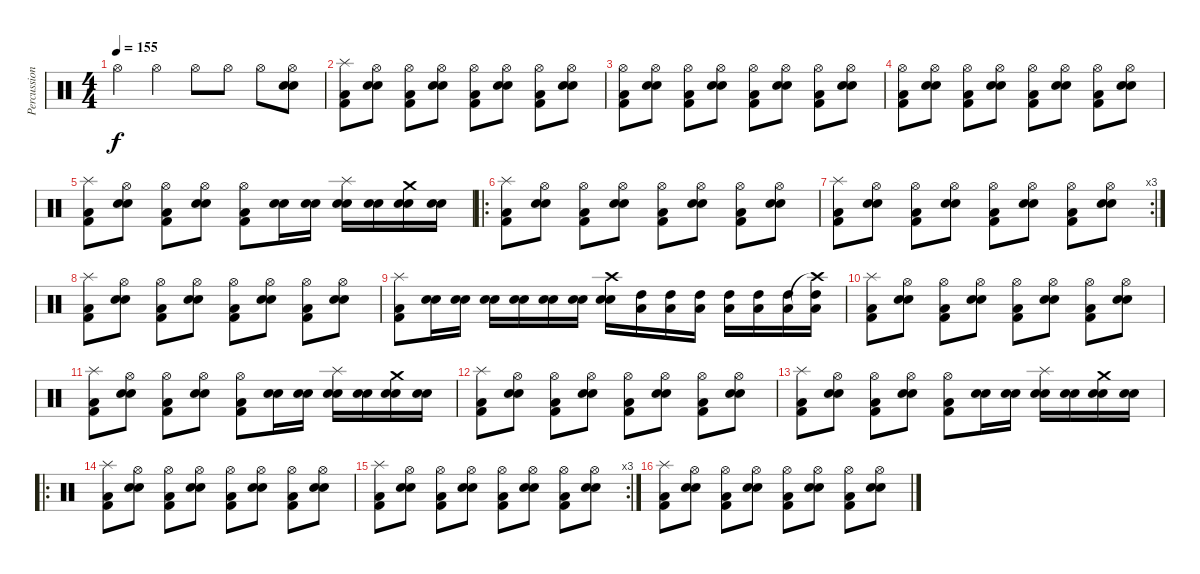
\track ("Percussions" "Percussion") {instrument percussion}
\staff {score}
\articulation defaults
\ts (4 4)
\tempo 155
\clef neutral
\ks c "Hi-Hat (open)".4{dy f} "Hi-Hat (open)".4 "Hi-Hat (open)".8 "Hi-Hat (open)".8 "Hi-Hat (open)".8
("Hi-Hat (open)" "Snare (hit) 2" "Snare (hit) 2").8 |
("Splash (hit)" "Kick (hit) 2" "Low Floor Tom (hit)").8 ("Hi-Hat (open)" "Snare (hit) 2" "Snare (hit) 2").8 ("Hi-Hat (open)" "Kick (hit) 2" "Low Floor Tom (hit)").8 ("Hi-Hat (open)" "Snare (hit) 2" "Snare (hit) 2").8 ("Hi-Hat (open)" "Kick (hit) 2" "Low Floor Tom (hit)").8 ("Hi-Hat (open)" "Snare (hit) 2" "Snare (hit) 2").8 ("Hi-Hat (open)" "Kick (hit) 2" "Low Floor Tom (hit)").8 ("Hi-Hat (open)" "Snare (hit) 2" "Snare (hit) 2").8 |
("Hi-Hat (open)" "Kick (hit) 2" "Low Floor Tom (hit)").8 ("Hi-Hat (open)" "Snare (hit) 2" "Snare (hit) 2").8 ("Hi-Hat (open)" "Kick (hit) 2" "Low Floor Tom (hit)").8 ("Hi-Hat (open)" "Snare (hit) 2" "Snare (hit) 2").8 ("Hi-Hat (open)" "Kick (hit) 2" "Low Floor Tom (hit)").8 ("Hi-Hat (open)" "Snare (hit) 2" "Snare (hit) 2").8 ("Hi-Hat (open)" "Kick (hit) 2" "Low Floor Tom (hit)").8 ("Hi-Hat (open)" "Snare (hit) 2" "Snare (hit) 2").8 |
("Hi-Hat (open)" "Kick (hit) 2" "Low Floor Tom (hit)").8 ("Hi-Hat (open)" "Snare (hit) 2" "Snare (hit) 2").8 ("Hi-Hat (open)" "Kick (hit) 2" "Low Floor Tom (hit)").8 ("Hi-Hat (open)" "Snare (hit) 2" "Snare (hit) 2").8 ("Hi-Hat (open)" "Kick (hit) 2" "Low Floor Tom (hit)").8 ("Hi-Hat (open)" "Snare (hit) 2" "Snare (hit) 2").8 ("Hi-Hat (open)" "Kick (hit) 2" "Low Floor Tom (hit)").8 ("Hi-Hat (open)" "Snare (hit) 2" "Snare (hit) 2").8 |
("Splash (hit)" "Kick (hit) 2" "Low Floor Tom (hit)").8 ("Hi-Hat (open)" "Snare (hit) 2" "Snare (hit) 2").8 ("Hi-Hat (open)" "Kick (hit) 2" "Low Floor Tom (hit)").8 ("Hi-Hat (open)" "Snare (hit) 2" "Snare (hit) 2").8 ("Hi-Hat (open)" "Kick (hit) 2" "Low Floor Tom (hit)").8 ("Snare (hit) 2" "Snare (hit) 2").16 ("Snare (hit) 2" "Snare (hit) 2").16 ("Splash (hit)" "Snare (hit) 2" "Snare (hit) 2").16 ("Snare (hit) 2" "Snare (hit) 2").16 ("Crash medium (hit)" "Snare (hit) 2" "Snare (hit) 2").16 ("Snare (hit) 2" "Snare (hit) 2").16 |
\ro
("Splash (hit)" "Kick (hit) 2" "Low Floor Tom (hit)").8 ("Hi-Hat (open)" "Snare (hit) 2" "Snare (hit) 2").8 ("Hi-Hat (open)" "Kick (hit) 2" "Low Floor Tom (hit)").8 ("Hi-Hat (open)" "Snare (hit) 2" "Snare (hit) 2").8 ("Hi-Hat (open)" "Kick (hit) 2" "Low Floor Tom (hit)").8 ("Hi-Hat (open)" "Snare (hit) 2" "Snare (hit) 2").8 ("Hi-Hat (open)" "Kick (hit) 2" "Low Floor Tom (hit)").8 ("Hi-Hat (open)" "Snare (hit) 2" "Snare (hit) 2").8 |
\rc 3
("Splash (hit)" "Kick (hit) 2" "Low Floor Tom (hit)").8 ("Hi-Hat (open)" "Snare (hit) 2" "Snare (hit) 2").8 ("Hi-Hat (open)" "Kick (hit) 2" "Low Floor Tom (hit)").8 ("Hi-Hat (open)" "Snare (hit) 2" "Snare (hit) 2").8 ("Hi-Hat (open)" "Kick (hit) 2" "Low Floor Tom (hit)").8 ("Hi-Hat (open)" "Snare (hit) 2" "Snare (hit) 2").8 ("Hi-Hat (open)" "Kick (hit) 2" "Low Floor Tom (hit)").8 ("Hi-Hat (open)" "Snare (hit) 2" "Snare (hit) 2").8 |
("Splash (hit)" "Kick (hit) 2" "Low Floor Tom (hit)").8 ("Hi-Hat (open)" "Snare (hit) 2" "Snare (hit) 2").8 ("Hi-Hat (open)" "Kick (hit) 2" "Low Floor Tom (hit)").8 ("Hi-Hat (open)" "Snare (hit) 2" "Snare (hit) 2").8 ("Hi-Hat (open)" "Kick (hit) 2" "Low Floor Tom (hit)").8 ("Hi-Hat (open)" "Snare (hit) 2" "Snare (hit) 2").8 ("Hi-Hat (open)" "Kick (hit) 2" "Low Floor Tom (hit)").8 ("Hi-Hat (open)" "Snare (hit) 2" "Snare (hit) 2").8 |
("Splash (hit)" "Kick (hit) 2" "Low Floor Tom (hit)").8 ("Snare (hit) 2" "Snare (hit) 2").16 ("Snare (hit) 2" "Snare (hit) 2").16 ("Snare (hit) 2" "Snare (hit) 2").16 ("Snare (hit) 2" "Snare (hit) 2").16 ("Snare (hit) 2" "Snare (hit) 2").16 ("Snare (hit) 2" "Snare (hit) 2").16 ("Crash high (hit)" "Snare (hit) 2" "Snare (hit) 2").16 ("Low Floor Tom (hit)" "High Tom (hit)").16 ("Low Floor Tom (hit)" "High Tom (hit)").16 ("Low Floor Tom (hit)" "High Tom (hit)").16 ("Low Floor Tom (hit)" "High Tom (hit)").16 ("Low Floor Tom (hit)" "High Tom (hit)").16 ("Low Floor Tom (hit)" "High Tom (hit)").16 ("Crash high (hit)"{t} "Low Floor Tom (hit)" "High Tom (hit)").16 |
("Splash (hit)" "Kick (hit) 2" "Low Floor Tom (hit)").8 ("Hi-Hat (open)" "Snare (hit) 2" "Snare (hit) 2").8 ("Hi-Hat (open)" "Kick (hit) 2" "Low Floor Tom (hit)").8 ("Hi-Hat (open)" "Snare (hit) 2" "Snare (hit) 2").8 ("Hi-Hat (open)" "Kick (hit) 2" "Low Floor Tom (hit)").8 ("Hi-Hat (open)" "Snare (hit) 2" "Snare (hit) 2").8 ("Hi-Hat (open)" "Kick (hit) 2" "Low Floor Tom (hit)").8 ("Hi-Hat (open)" "Snare (hit) 2" "Snare (hit) 2").8 |
("Splash (hit)" "Kick (hit) 2" "Low Floor Tom (hit)").8 ("Hi-Hat (open)" "Snare (hit) 2" "Snare (hit) 2").8 ("Hi-Hat (open)" "Kick (hit) 2" "Low Floor Tom (hit)").8 ("Hi-Hat (open)" "Snare (hit) 2" "Snare (hit) 2").8 ("Hi-Hat (open)" "Kick (hit) 2" "Low Floor Tom (hit)").8 ("Snare (hit) 2" "Snare (hit) 2").16 ("Snare (hit) 2" "Snare (hit) 2").16 ("Splash (hit)" "Snare (hit) 2" "Snare (hit) 2").16 ("Snare (hit) 2" "Snare (hit) 2").16 ("Crash medium (hit)" "Snare (hit) 2" "Snare (hit) 2").16 ("Snare (hit) 2" "Snare (hit) 2").16 |
("Splash (hit)" "Kick (hit) 2" "Low Floor Tom (hit)").8 ("Hi-Hat (open)" "Snare (hit) 2" "Snare (hit) 2").8 ("Hi-Hat (open)" "Kick (hit) 2" "Low Floor Tom (hit)").8 ("Hi-Hat (open)" "Snare (hit) 2" "Snare (hit) 2").8 ("Hi-Hat (open)" "Kick (hit) 2" "Low Floor Tom (hit)").8 ("Hi-Hat (open)" "Snare (hit) 2" "Snare (hit) 2").8 ("Hi-Hat (open)" "Kick (hit) 2" "Low Floor Tom (hit)").8 ("Hi-Hat (open)" "Snare (hit) 2" "Snare (hit) 2").8 |
("Splash (hit)" "Kick (hit) 2" "Low Floor Tom (hit)").8 ("Hi-Hat (open)" "Snare (hit) 2" "Snare (hit) 2").8 ("Hi-Hat (open)" "Kick (hit) 2" "Low Floor Tom (hit)").8 ("Hi-Hat (open)" "Snare (hit) 2" "Snare (hit) 2").8 ("Hi-Hat (open)" "Kick (hit) 2" "Low Floor Tom (hit)").8 ("Snare (hit) 2" "Snare (hit) 2").16 ("Snare (hit) 2" "Snare (hit) 2").16 ("Splash (hit)" "Snare (hit) 2" "Snare (hit) 2").16 ("Snare (hit) 2" "Snare (hit) 2").16 ("Crash medium (hit)" "Snare (hit) 2" "Snare (hit) 2").16 ("Snare (hit) 2" "Snare (hit) 2").16 |
\ro
("Splash (hit)" "Kick (hit) 2" "Low Floor Tom (hit)").8 ("Hi-Hat (open)" "Snare (hit) 2" "Snare (hit) 2").8 ("Hi-Hat (open)" "Kick (hit) 2" "Low Floor Tom (hit)").8 ("Hi-Hat (open)" "Snare (hit) 2" "Snare (hit) 2").8 ("Hi-Hat (open)" "Kick (hit) 2" "Low Floor Tom (hit)").8 ("Hi-Hat (open)" "Snare (hit) 2" "Snare (hit) 2").8 ("Hi-Hat (open)" "Kick (hit) 2" "Low Floor Tom (hit)").8 ("Hi-Hat (open)" "Snare (hit) 2" "Snare (hit) 2").8 |
\rc 3
("Splash (hit)" "Kick (hit) 2" "Low Floor Tom (hit)").8 ("Hi-Hat (open)" "Snare (hit) 2" "Snare (hit) 2").8 ("Hi-Hat (open)" "Kick (hit) 2" "Low Floor Tom (hit)").8 ("Hi-Hat (open)" "Snare (hit) 2" "Snare (hit) 2").8 ("Hi-Hat (open)" "Kick (hit) 2" "Low Floor Tom (hit)").8 ("Hi-Hat (open)" "Snare (hit) 2" "Snare (hit) 2").8 ("Hi-Hat (open)" "Kick (hit) 2" "Low Floor Tom (hit)").8 ("Hi-Hat (open)" "Snare (hit) 2" "Snare (hit) 2").8 |
("Splash (hit)" "Kick (hit) 2" "Low Floor Tom (hit)").8 ("Hi-Hat (open)" "Snare (hit) 2" "Snare (hit) 2").8 ("Hi-Hat (open)" "Kick (hit) 2" "Low Floor Tom (hit)").8 ("Hi-Hat (open)" "Snare (hit) 2" "Snare (hit) 2").8 ("Hi-Hat (open)" "Kick (hit) 2" "Low Floor Tom (hit)").8 ("Hi-Hat (open)" "Snare (hit) 2" "Snare (hit) 2").8 ("Hi-Hat (open)" "Kick (hit) 2" "Low Floor Tom (hit)").8 ("Hi-Hat (open)" "Snare (hit) 2" "Snare (hit) 2").8
